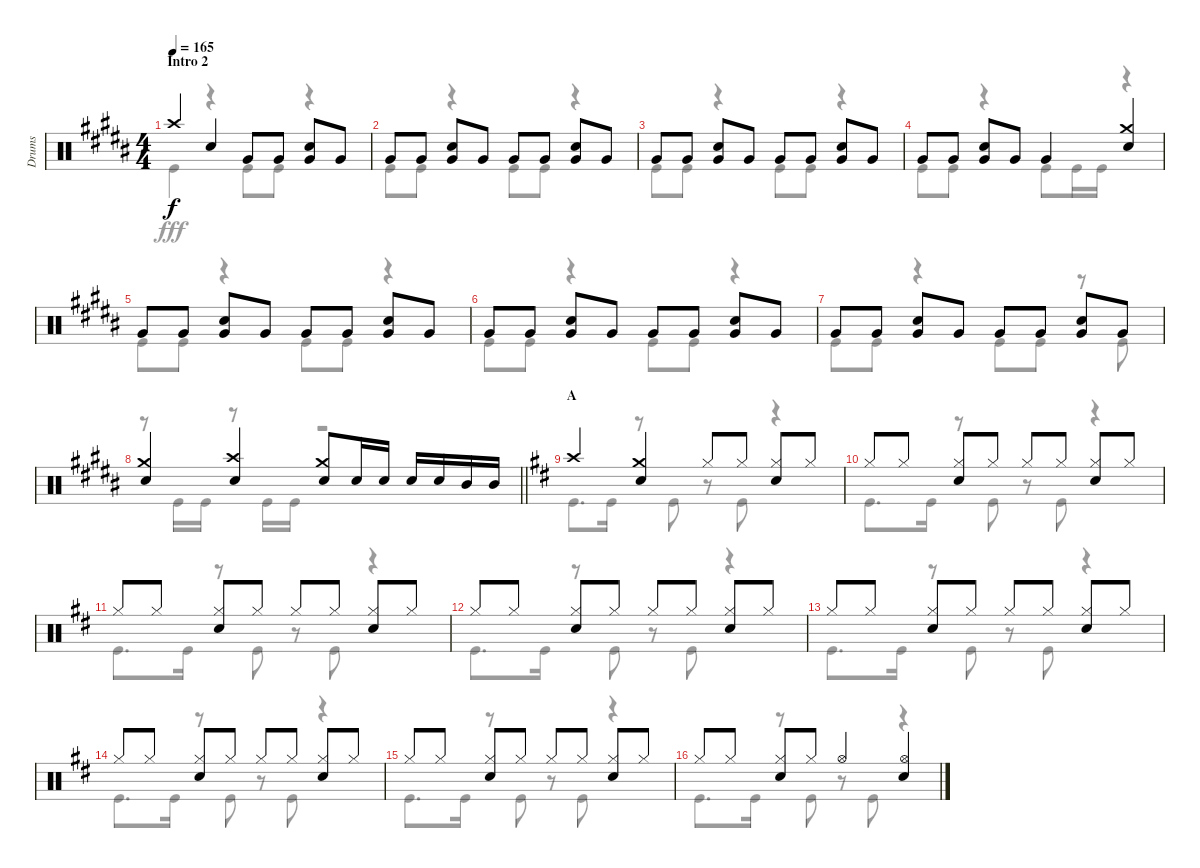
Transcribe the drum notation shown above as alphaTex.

\track ("Drums" "Drums") {instrument percussion}
\staff {score}
\articulation defaults
\voice
\ts (4 4)
\section ("" "Intro 2")
\tempo 165
\clef neutral
\ks b "Crash high (hit)".4{dy f} "Snare (hit) 2".4 "Very Low Tom (hit)".8 "Very Low Tom (hit)".8
("Snare (hit) 2" "Very Low Tom (hit)").8 "Very Low Tom (hit)".8 |
"Very Low Tom (hit)".8 "Very Low Tom (hit)".8 ("Snare (hit) 2" "Very Low Tom (hit)").8 "Very Low Tom (hit)".8 "Very Low Tom (hit)".8 "Very Low Tom (hit)".8 ("Snare (hit) 2" "Very Low Tom (hit)").8 "Very Low Tom (hit)".8 |
"Very Low Tom (hit)".8 "Very Low Tom (hit)".8 ("Snare (hit) 2" "Very Low Tom (hit)").8 "Very Low Tom (hit)".8 "Very Low Tom (hit)".8 "Very Low Tom (hit)".8 ("Snare (hit) 2" "Very Low Tom (hit)").8 "Very Low Tom (hit)".8 |
"Very Low Tom (hit)".8 "Very Low Tom (hit)".8 ("Snare (hit) 2" "Very Low Tom (hit)").8 "Very Low Tom (hit)".8 "Very Low Tom (hit)".4 ("Crash medium (hit)" "Snare (hit) 2").4 |
"Very Low Tom (hit)".8 "Very Low Tom (hit)".8 ("Snare (hit) 2" "Very Low Tom (hit)").8 "Very Low Tom (hit)".8 "Very Low Tom (hit)".8 "Very Low Tom (hit)".8 ("Snare (hit) 2" "Very Low Tom (hit)").8 "Very Low Tom (hit)".8 |
"Very Low Tom (hit)".8 "Very Low Tom (hit)".8 ("Snare (hit) 2" "Very Low Tom (hit)").8 "Very Low Tom (hit)".8 "Very Low Tom (hit)".8 "Very Low Tom (hit)".8 ("Snare (hit) 2" "Very Low Tom (hit)").8 "Very Low Tom (hit)".8 |
"Very Low Tom (hit)".8 "Very Low Tom (hit)".8 ("Snare (hit) 2" "Very Low Tom (hit)").8 "Very Low Tom (hit)".8 "Very Low Tom (hit)".8 "Very Low Tom (hit)".8 ("Snare (hit) 2" "Very Low Tom (hit)").8 "Very Low Tom (hit)".8 |
\barLineRight lightlight
("Crash medium (hit)" "Snare (hit) 2").4 ("Crash high (hit)" "Snare (hit) 2").4 ("Crash medium (hit)" "Snare (hit) 2").8 "Snare (hit) 2".16 "Snare (hit) 2".16 "Snare (hit) 2".16 "Snare (hit) 2".16 "Mid Tom (hit)".16 "Mid Tom (hit)".16 |
\section ("" "A")
\ks d "Crash high (hit)".4
("Crash medium (hit)" "Snare (hit) 2").4 "Hi-Hat (closed)".8 "Hi-Hat (closed)".8 ("Hi-Hat (closed)" "Snare (hit) 2").8 "Hi-Hat (closed)".8 |
"Hi-Hat (closed)".8 "Hi-Hat (closed)".8 ("Hi-Hat (closed)" "Snare (hit) 2").8 "Hi-Hat (closed)".8 "Hi-Hat (closed)".8 "Hi-Hat (closed)".8 ("Hi-Hat (closed)" "Snare (hit) 2").8 "Hi-Hat (closed)".8 |
"Hi-Hat (closed)".8 "Hi-Hat (closed)".8 ("Hi-Hat (closed)" "Snare (hit) 2").8 "Hi-Hat (closed)".8 "Hi-Hat (closed)".8 "Hi-Hat (closed)".8 ("Hi-Hat (closed)" "Snare (hit) 2").8 "Hi-Hat (closed)".8 |
"Hi-Hat (closed)".8 "Hi-Hat (closed)".8 ("Hi-Hat (closed)" "Snare (hit) 2").8 "Hi-Hat (closed)".8 "Hi-Hat (closed)".8 "Hi-Hat (closed)".8 ("Hi-Hat (closed)" "Snare (hit) 2").8 "Hi-Hat (closed)".8 |
"Hi-Hat (closed)".8 "Hi-Hat (closed)".8 ("Hi-Hat (closed)" "Snare (hit) 2").8 "Hi-Hat (closed)".8 "Hi-Hat (closed)".8 "Hi-Hat (closed)".8 ("Hi-Hat (closed)" "Snare (hit) 2").8 "Hi-Hat (closed)".8 |
"Hi-Hat (closed)".8 "Hi-Hat (closed)".8 ("Hi-Hat (closed)" "Snare (hit) 2").8 "Hi-Hat (closed)".8 "Hi-Hat (closed)".8 "Hi-Hat (closed)".8 ("Hi-Hat (closed)" "Snare (hit) 2").8 "Hi-Hat (closed)".8 |
"Hi-Hat (closed)".8 "Hi-Hat (closed)".8 ("Hi-Hat (closed)" "Snare (hit) 2").8 "Hi-Hat (closed)".8 "Hi-Hat (closed)".8 "Hi-Hat (closed)".8 ("Hi-Hat (closed)" "Snare (hit) 2").8 "Hi-Hat (closed)".8 |
"Hi-Hat (closed)".8 "Hi-Hat (closed)".8 ("Hi-Hat (closed)" "Snare (hit) 2").8 "Hi-Hat (closed)".8 "Hi-Hat (open)".4 ("Hi-Hat (open)" "Snare (hit) 2").4
\voice
\clef neutral
\ottava regular
\simile none
\ks b "Kick (hit)".4{dy fff}
r.4 "Kick (hit)".8 "Kick (hit)".8 r.4 |
"Kick (hit)".8 "Kick (hit)".8 r.4 "Kick (hit)".8 "Kick (hit)".8 r.4 |
"Kick (hit)".8 "Kick (hit)".8 r.4 "Kick (hit)".8 "Kick (hit)".8 r.4 |
"Kick (hit)".8 "Kick (hit)".8 r.4 "Kick (hit)".8 "Kick (hit)".16 "Kick (hit)".16 r.4 |
"Kick (hit)".8 "Kick (hit)".8 r.4 "Kick (hit)".8 "Kick (hit)".8 r.4 |
"Kick (hit)".8 "Kick (hit)".8 r.4 "Kick (hit)".8 "Kick (hit)".8 r.4 |
"Kick (hit)".8 "Kick (hit)".8 r.4 "Kick (hit)".8 "Kick (hit)".8 r.8 "Kick (hit)".8 |
\barLineRight lightlight
r.8 "Kick (hit)".16 "Kick (hit)".16 r.8 "Kick (hit)".16 "Kick (hit)".16 r.2 |
\ks d "Kick (hit)".8{d} "Kick (hit)".16
r.8 "Kick (hit)".8 r.8 "Kick (hit)".8 r.4 |
"Kick (hit)".8{d} "Kick (hit)".16 r.8 "Kick (hit)".8 r.8 "Kick (hit)".8 r.4 |
"Kick (hit)".8{d} "Kick (hit)".16 r.8 "Kick (hit)".8 r.8 "Kick (hit)".8 r.4 |
"Kick (hit)".8{d} "Kick (hit)".16 r.8 "Kick (hit)".8 r.8 "Kick (hit)".8 r.4 |
"Kick (hit)".8{d} "Kick (hit)".16 r.8 "Kick (hit)".8 r.8 "Kick (hit)".8 r.4 |
"Kick (hit)".8{d} "Kick (hit)".16 r.8 "Kick (hit)".8 r.8 "Kick (hit)".8 r.4 |
"Kick (hit)".8{d} "Kick (hit)".16 r.8 "Kick (hit)".8 r.8 "Kick (hit)".8 r.4 |
"Kick (hit)".8{d} "Kick (hit)".16 r.8 "Kick (hit)".8 r.8 "Kick (hit)".8 r.4
